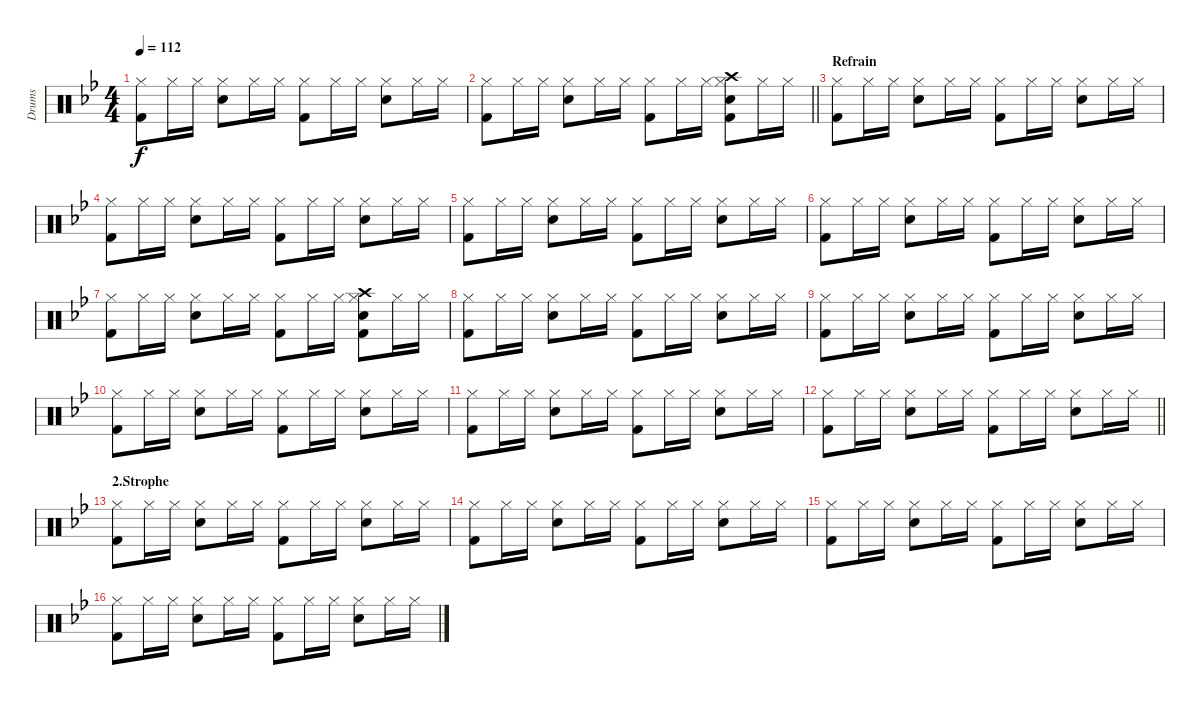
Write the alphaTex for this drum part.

\track ("Drums" "Drums") {instrument percussion}
\staff {score}
\articulation defaults
\ts (4 4)
\tempo 112
\clef neutral
\ks bb
("Hi-Hat (closed)" "Kick (hit) 2").8{dy f} "Hi-Hat (closed)".16 "Hi-Hat (closed)".16 ("Snare (hit) 2" "Hi-Hat (closed)").8 "Hi-Hat (closed)".16 "Hi-Hat (closed)".16 ("Hi-Hat (closed)" "Kick (hit) 2").8 "Hi-Hat (closed)".16 "Hi-Hat (closed)".16 ("Snare (hit) 2" "Hi-Hat (closed)").8 "Hi-Hat (closed)".16 "Hi-Hat (closed)".16 |
\barLineRight lightlight
("Hi-Hat (closed)" "Kick (hit) 2").8 "Hi-Hat (closed)".16 "Hi-Hat (closed)".16 ("Snare (hit) 2" "Hi-Hat (closed)").8 "Hi-Hat (closed)".16 "Hi-Hat (closed)".16 ("Hi-Hat (closed)" "Kick (hit) 2").8 "Hi-Hat (closed)".16 "Hi-Hat (closed)".16 ("Snare (hit) 2" "Hi-Hat (closed)" "Crash high (hit)" "Kick (hit) 2").8 "Hi-Hat (closed)".16 "Hi-Hat (closed)".16 |
\section ("" "Refrain")
("Hi-Hat (closed)" "Kick (hit) 2").8 "Hi-Hat (closed)".16 "Hi-Hat (closed)".16 ("Snare (hit) 2" "Hi-Hat (closed)").8 "Hi-Hat (closed)".16 "Hi-Hat (closed)".16 ("Hi-Hat (closed)" "Kick (hit) 2").8 "Hi-Hat (closed)".16 "Hi-Hat (closed)".16 ("Snare (hit) 2" "Hi-Hat (closed)").8 "Hi-Hat (closed)".16 "Hi-Hat (closed)".16 |
("Hi-Hat (closed)" "Kick (hit) 2").8 "Hi-Hat (closed)".16 "Hi-Hat (closed)".16 ("Snare (hit) 2" "Hi-Hat (closed)").8 "Hi-Hat (closed)".16 "Hi-Hat (closed)".16 ("Hi-Hat (closed)" "Kick (hit) 2").8 "Hi-Hat (closed)".16 "Hi-Hat (closed)".16 ("Snare (hit) 2" "Hi-Hat (closed)").8 "Hi-Hat (closed)".16 "Hi-Hat (closed)".16 |
("Hi-Hat (closed)" "Kick (hit) 2").8 "Hi-Hat (closed)".16 "Hi-Hat (closed)".16 ("Snare (hit) 2" "Hi-Hat (closed)").8 "Hi-Hat (closed)".16 "Hi-Hat (closed)".16 ("Hi-Hat (closed)" "Kick (hit) 2").8 "Hi-Hat (closed)".16 "Hi-Hat (closed)".16 ("Snare (hit) 2" "Hi-Hat (closed)").8 "Hi-Hat (closed)".16 "Hi-Hat (closed)".16 |
("Hi-Hat (closed)" "Kick (hit) 2").8 "Hi-Hat (closed)".16 "Hi-Hat (closed)".16 ("Snare (hit) 2" "Hi-Hat (closed)").8 "Hi-Hat (closed)".16 "Hi-Hat (closed)".16 ("Hi-Hat (closed)" "Kick (hit) 2").8 "Hi-Hat (closed)".16 "Hi-Hat (closed)".16 ("Snare (hit) 2" "Hi-Hat (closed)").8 "Hi-Hat (closed)".16 "Hi-Hat (closed)".16 |
("Hi-Hat (closed)" "Kick (hit) 2").8 "Hi-Hat (closed)".16 "Hi-Hat (closed)".16 ("Snare (hit) 2" "Hi-Hat (closed)").8 "Hi-Hat (closed)".16 "Hi-Hat (closed)".16 ("Hi-Hat (closed)" "Kick (hit) 2").8 "Hi-Hat (closed)".16 "Hi-Hat (closed)".16 ("Snare (hit) 2" "Hi-Hat (closed)" "Crash high (hit)" "Kick (hit) 2").8 "Hi-Hat (closed)".16 "Hi-Hat (closed)".16 |
("Hi-Hat (closed)" "Kick (hit) 2").8 "Hi-Hat (closed)".16 "Hi-Hat (closed)".16 ("Snare (hit) 2" "Hi-Hat (closed)").8 "Hi-Hat (closed)".16 "Hi-Hat (closed)".16 ("Hi-Hat (closed)" "Kick (hit) 2").8 "Hi-Hat (closed)".16 "Hi-Hat (closed)".16 ("Snare (hit) 2" "Hi-Hat (closed)").8 "Hi-Hat (closed)".16 "Hi-Hat (closed)".16 |
("Hi-Hat (closed)" "Kick (hit) 2").8 "Hi-Hat (closed)".16 "Hi-Hat (closed)".16 ("Snare (hit) 2" "Hi-Hat (closed)").8 "Hi-Hat (closed)".16 "Hi-Hat (closed)".16 ("Hi-Hat (closed)" "Kick (hit) 2").8 "Hi-Hat (closed)".16 "Hi-Hat (closed)".16 ("Snare (hit) 2" "Hi-Hat (closed)").8 "Hi-Hat (closed)".16 "Hi-Hat (closed)".16 |
("Hi-Hat (closed)" "Kick (hit) 2").8 "Hi-Hat (closed)".16 "Hi-Hat (closed)".16 ("Snare (hit) 2" "Hi-Hat (closed)").8 "Hi-Hat (closed)".16 "Hi-Hat (closed)".16 ("Hi-Hat (closed)" "Kick (hit) 2").8 "Hi-Hat (closed)".16 "Hi-Hat (closed)".16 ("Snare (hit) 2" "Hi-Hat (closed)").8 "Hi-Hat (closed)".16 "Hi-Hat (closed)".16 |
("Hi-Hat (closed)" "Kick (hit) 2").8 "Hi-Hat (closed)".16 "Hi-Hat (closed)".16 ("Snare (hit) 2" "Hi-Hat (closed)").8 "Hi-Hat (closed)".16 "Hi-Hat (closed)".16 ("Hi-Hat (closed)" "Kick (hit) 2").8 "Hi-Hat (closed)".16 "Hi-Hat (closed)".16 ("Snare (hit) 2" "Hi-Hat (closed)").8 "Hi-Hat (closed)".16 "Hi-Hat (closed)".16 |
\barLineRight lightlight
("Hi-Hat (closed)" "Kick (hit) 2").8 "Hi-Hat (closed)".16 "Hi-Hat (closed)".16 ("Snare (hit) 2" "Hi-Hat (closed)").8 "Hi-Hat (closed)".16 "Hi-Hat (closed)".16 ("Hi-Hat (closed)" "Kick (hit) 2").8 "Hi-Hat (closed)".16 "Hi-Hat (closed)".16 ("Snare (hit) 2" "Hi-Hat (closed)").8 "Hi-Hat (closed)".16 "Hi-Hat (closed)".16 |
\section ("" "2.Strophe")
("Hi-Hat (closed)" "Kick (hit) 2").8 "Hi-Hat (closed)".16 "Hi-Hat (closed)".16 ("Snare (hit) 2" "Hi-Hat (closed)").8 "Hi-Hat (closed)".16 "Hi-Hat (closed)".16 ("Hi-Hat (closed)" "Kick (hit) 2").8 "Hi-Hat (closed)".16 "Hi-Hat (closed)".16 ("Snare (hit) 2" "Hi-Hat (closed)").8 "Hi-Hat (closed)".16 "Hi-Hat (closed)".16 |
("Hi-Hat (closed)" "Kick (hit) 2").8 "Hi-Hat (closed)".16 "Hi-Hat (closed)".16 ("Snare (hit) 2" "Hi-Hat (closed)").8 "Hi-Hat (closed)".16 "Hi-Hat (closed)".16 ("Hi-Hat (closed)" "Kick (hit) 2").8 "Hi-Hat (closed)".16 "Hi-Hat (closed)".16 ("Snare (hit) 2" "Hi-Hat (closed)").8 "Hi-Hat (closed)".16 "Hi-Hat (closed)".16 |
("Hi-Hat (closed)" "Kick (hit) 2").8 "Hi-Hat (closed)".16 "Hi-Hat (closed)".16 ("Snare (hit) 2" "Hi-Hat (closed)").8 "Hi-Hat (closed)".16 "Hi-Hat (closed)".16 ("Hi-Hat (closed)" "Kick (hit) 2").8 "Hi-Hat (closed)".16 "Hi-Hat (closed)".16 ("Snare (hit) 2" "Hi-Hat (closed)").8 "Hi-Hat (closed)".16 "Hi-Hat (closed)".16 |
("Hi-Hat (closed)" "Kick (hit) 2").8 "Hi-Hat (closed)".16 "Hi-Hat (closed)".16 ("Snare (hit) 2" "Hi-Hat (closed)").8 "Hi-Hat (closed)".16 "Hi-Hat (closed)".16 ("Hi-Hat (closed)" "Kick (hit) 2").8 "Hi-Hat (closed)".16 "Hi-Hat (closed)".16 ("Snare (hit) 2" "Hi-Hat (closed)").8 "Hi-Hat (closed)".16 "Hi-Hat (closed)".16
